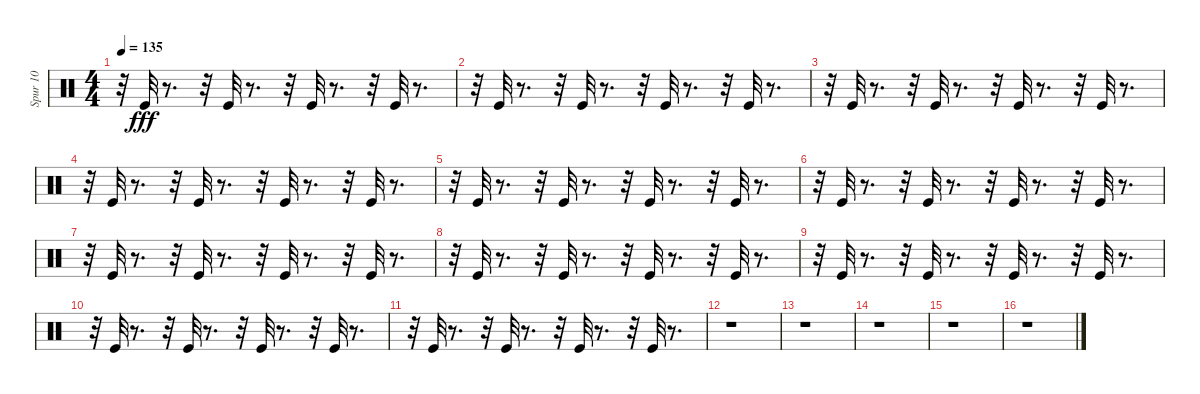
\track ("Spur 10" "Spur 10") {instrument percussion}
\staff {score}
\articulation defaults
\ts (4 4)
\tempo 135
\clef neutral
\ks c
r.32{dy fff} "Kick (hit)".32 r.8{d} r.32 "Kick (hit)".32 r.8{d} r.32 "Kick (hit)".32 r.8{d} r.32 "Kick (hit)".32 r.8{d} |
r.32 "Kick (hit)".32 r.8{d} r.32 "Kick (hit)".32 r.8{d} r.32 "Kick (hit)".32 r.8{d} r.32 "Kick (hit)".32 r.8{d} |
r.32 "Kick (hit)".32 r.8{d} r.32 "Kick (hit)".32 r.8{d} r.32 "Kick (hit)".32 r.8{d} r.32 "Kick (hit)".32 r.8{d} |
r.32 "Kick (hit)".32 r.8{d} r.32 "Kick (hit)".32 r.8{d} r.32 "Kick (hit)".32 r.8{d} r.32 "Kick (hit)".32 r.8{d} |
r.32 "Kick (hit)".32 r.8{d} r.32 "Kick (hit)".32 r.8{d} r.32 "Kick (hit)".32 r.8{d} r.32 "Kick (hit)".32 r.8{d} |
r.32 "Kick (hit)".32 r.8{d} r.32 "Kick (hit)".32 r.8{d} r.32 "Kick (hit)".32 r.8{d} r.32 "Kick (hit)".32 r.8{d} |
r.32 "Kick (hit)".32 r.8{d} r.32 "Kick (hit)".32 r.8{d} r.32 "Kick (hit)".32 r.8{d} r.32 "Kick (hit)".32 r.8{d} |
r.32 "Kick (hit)".32 r.8{d} r.32 "Kick (hit)".32 r.8{d} r.32 "Kick (hit)".32 r.8{d} r.32 "Kick (hit)".32 r.8{d} |
r.32 "Kick (hit)".32 r.8{d} r.32 "Kick (hit)".32 r.8{d} r.32 "Kick (hit)".32 r.8{d} r.32 "Kick (hit)".32 r.8{d} |
r.32 "Kick (hit)".32 r.8{d} r.32 "Kick (hit)".32 r.8{d} r.32 "Kick (hit)".32 r.8{d} r.32 "Kick (hit)".32 r.8{d} |
r.32 "Kick (hit)".32 r.8{d} r.32 "Kick (hit)".32 r.8{d} r.32 "Kick (hit)".32 r.8{d} r.32 "Kick (hit)".32 r.8{d} |
r.1 |
r.1 |
r.1 |
r.1 |
r.1
